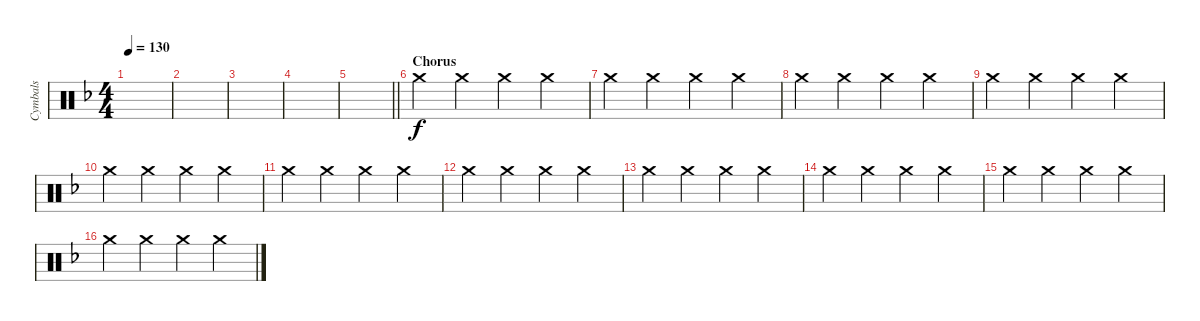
\track ("Cymbals" "Cymbals") {instrument percussion}
\staff {score}
\articulation defaults
\ts (4 4)
\tempo 130
\clef neutral
\ks f
|
|
|
|
\barLineRight lightlight
|
\section ("" "Chorus")
"Crash medium (hit)".4 "Crash medium (hit)".4 "Crash medium (hit)".4 "Crash medium (hit)".4 |
"Crash medium (hit)".4 "Crash medium (hit)".4 "Crash medium (hit)".4 "Crash medium (hit)".4 |
"Crash medium (hit)".4 "Crash medium (hit)".4 "Crash medium (hit)".4 "Crash medium (hit)".4 |
"Crash medium (hit)".4 "Crash medium (hit)".4 "Crash medium (hit)".4 "Crash medium (hit)".4 |
"Crash medium (hit)".4 "Crash medium (hit)".4 "Crash medium (hit)".4 "Crash medium (hit)".4 |
"Crash medium (hit)".4 "Crash medium (hit)".4 "Crash medium (hit)".4 "Crash medium (hit)".4 |
"Crash medium (hit)".4 "Crash medium (hit)".4 "Crash medium (hit)".4 "Crash medium (hit)".4 |
"Crash medium (hit)".4 "Crash medium (hit)".4 "Crash medium (hit)".4 "Crash medium (hit)".4 |
"Crash medium (hit)".4 "Crash medium (hit)".4 "Crash medium (hit)".4 "Crash medium (hit)".4 |
"Crash medium (hit)".4 "Crash medium (hit)".4 "Crash medium (hit)".4 "Crash medium (hit)".4 |
"Crash medium (hit)".4 "Crash medium (hit)".4 "Crash medium (hit)".4 "Crash medium (hit)".4
